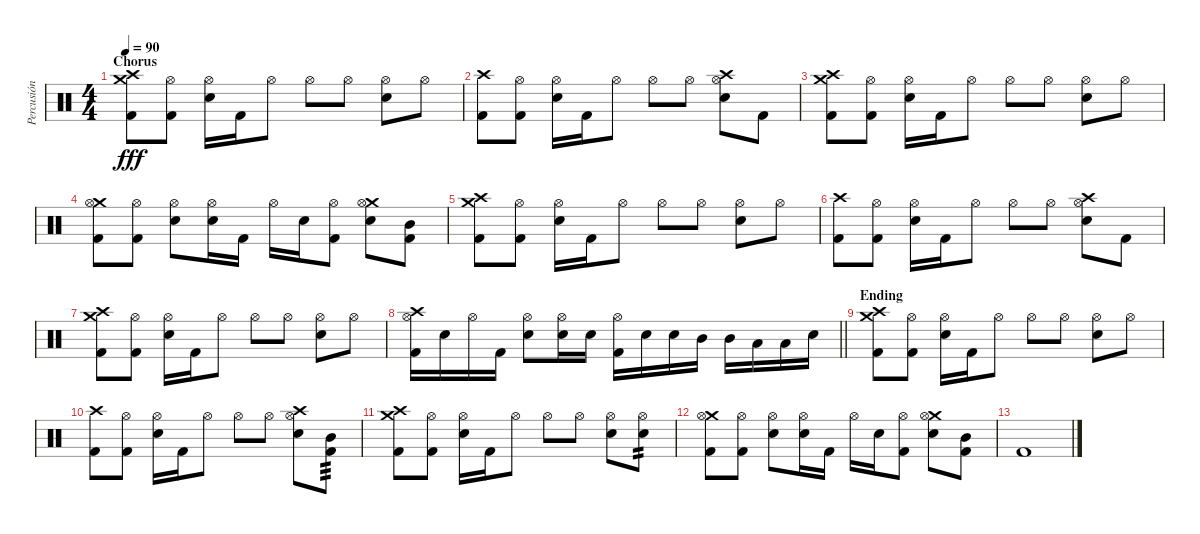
\track ("Percusión" "Percusión") {instrument percussion}
\staff {score}
\articulation defaults
\ts (4 4)
\section ("" "Chorus")
\tempo 90
\clef neutral
\ks c
("Crash medium (hit)" "Crash high (hit)" "Kick (hit) 2").8{dy fff} ("Hi-Hat (open)" "Kick (hit) 2").8 ("Hi-Hat (open)" "Electric Snare (hit)").16 "Kick (hit) 2".16 "Hi-Hat (open)".8 "Hi-Hat (open)".8 "Hi-Hat (open)".8 ("Hi-Hat (open)" "Electric Snare (hit)").8 "Hi-Hat (open)".8 |
("Crash high (hit)" "Kick (hit) 2").8 ("Hi-Hat (open)" "Kick (hit) 2").8 ("Hi-Hat (open)" "Electric Snare (hit)").16 "Kick (hit) 2".16 "Hi-Hat (open)".8 "Hi-Hat (open)".8 "Hi-Hat (open)".8 ("Crash high (hit)" "Hi-Hat (open)" "Electric Snare (hit)").8 "Kick (hit) 2".8 |
("Crash medium (hit)" "Crash high (hit)" "Kick (hit) 2").8 ("Hi-Hat (open)" "Kick (hit) 2").8 ("Hi-Hat (open)" "Electric Snare (hit)").16 "Kick (hit) 2".16 "Hi-Hat (open)".8 "Hi-Hat (open)".8 "Hi-Hat (open)".8 ("Hi-Hat (open)" "Electric Snare (hit)").8 "Hi-Hat (open)".8 |
("Crash medium (hit)" "Hi-Hat (open)" "Kick (hit) 2").8 ("Hi-Hat (open)" "Kick (hit) 2").8 ("Hi-Hat (open)" "Electric Snare (hit)").8 ("Hi-Hat (open)" "Electric Snare (hit)").16 "Kick (hit) 2".16 "Hi-Hat (open)".16 "Electric Snare (hit)".16 ("Hi-Hat (open)" "Kick (hit) 2").8 ("Crash medium (hit)" "Hi-Hat (open)" "Electric Snare (hit)").8 ("Mid Tom (hit)" "Kick (hit) 2").8 |
("Crash medium (hit)" "Crash high (hit)" "Kick (hit) 2").8 ("Hi-Hat (open)" "Kick (hit) 2").8 ("Hi-Hat (open)" "Electric Snare (hit)").16 "Kick (hit) 2".16 "Hi-Hat (open)".8 "Hi-Hat (open)".8 "Hi-Hat (open)".8 ("Hi-Hat (open)" "Electric Snare (hit)").8 "Hi-Hat (open)".8 |
("Crash high (hit)" "Kick (hit) 2").8 ("Hi-Hat (open)" "Kick (hit) 2").8 ("Hi-Hat (open)" "Electric Snare (hit)").16 "Kick (hit) 2".16 "Hi-Hat (open)".8 "Hi-Hat (open)".8 "Hi-Hat (open)".8 ("Crash high (hit)" "Hi-Hat (open)" "Electric Snare (hit)").8 "Kick (hit) 2".8 |
("Crash medium (hit)" "Crash high (hit)" "Kick (hit) 2").8 ("Hi-Hat (open)" "Kick (hit) 2").8 ("Hi-Hat (open)" "Electric Snare (hit)").16 "Kick (hit) 2".16 "Hi-Hat (open)".8 "Hi-Hat (open)".8 "Hi-Hat (open)".8 ("Hi-Hat (open)" "Electric Snare (hit)").8 "Hi-Hat (open)".8 |
\barLineRight lightlight
("Crash high (hit)" "Hi-Hat (open)" "Kick (hit) 2").16 "Electric Snare (hit)".16 "Hi-Hat (open)".16 "Kick (hit) 2".16 ("Hi-Hat (open)" "Electric Snare (hit)").8 ("Hi-Hat (open)" "Electric Snare (hit)").16 "Electric Snare (hit)".16 ("Hi-Hat (open)" "Kick (hit) 2").16 "Electric Snare (hit)".16 "Electric Snare (hit)".16 "Mid Tom (hit)".16 "Mid Tom (hit)".16 "Low Tom (hit)".16 "Low Tom (hit)".16 "Electric Snare (hit)".16 |
\section ("" "Ending")
("Crash medium (hit)" "Crash high (hit)" "Kick (hit) 2").8 ("Hi-Hat (open)" "Kick (hit) 2").8 ("Hi-Hat (open)" "Electric Snare (hit)").16 "Kick (hit) 2".16 "Hi-Hat (open)".8 "Hi-Hat (open)".8 "Hi-Hat (open)".8 ("Hi-Hat (open)" "Electric Snare (hit)").8 "Hi-Hat (open)".8 |
("Crash high (hit)" "Kick (hit) 2").8 ("Hi-Hat (open)" "Kick (hit) 2").8 ("Hi-Hat (open)" "Electric Snare (hit)").16 "Kick (hit) 2".16 "Hi-Hat (open)".8 "Hi-Hat (open)".8 "Hi-Hat (open)".8 ("Crash high (hit)" "Hi-Hat (open)" "Electric Snare (hit)").8 ("Mid Tom (hit)" "Kick (hit) 2").8{tp 3} |
("Crash medium (hit)" "Crash high (hit)" "Kick (hit) 2").8 ("Hi-Hat (open)" "Kick (hit) 2").8 ("Hi-Hat (open)" "Electric Snare (hit)").16 "Kick (hit) 2".16 "Hi-Hat (open)".8 "Hi-Hat (open)".8 "Hi-Hat (open)".8 ("Hi-Hat (open)" "Electric Snare (hit)").8 ("Hi-Hat (open)" "Electric Snare (hit)").8{tp 2} |
("Crash medium (hit)" "Hi-Hat (open)" "Kick (hit) 2").8 ("Hi-Hat (open)" "Kick (hit) 2").8 ("Hi-Hat (open)" "Electric Snare (hit)").8 ("Hi-Hat (open)" "Electric Snare (hit)").16 "Kick (hit) 2".16 "Hi-Hat (open)".16 "Electric Snare (hit)".16 ("Hi-Hat (open)" "Kick (hit) 2").8 ("Crash medium (hit)" "Hi-Hat (open)" "Electric Snare (hit)").8 ("Mid Tom (hit)" "Kick (hit) 2").8 |
"Kick (hit) 2".1
